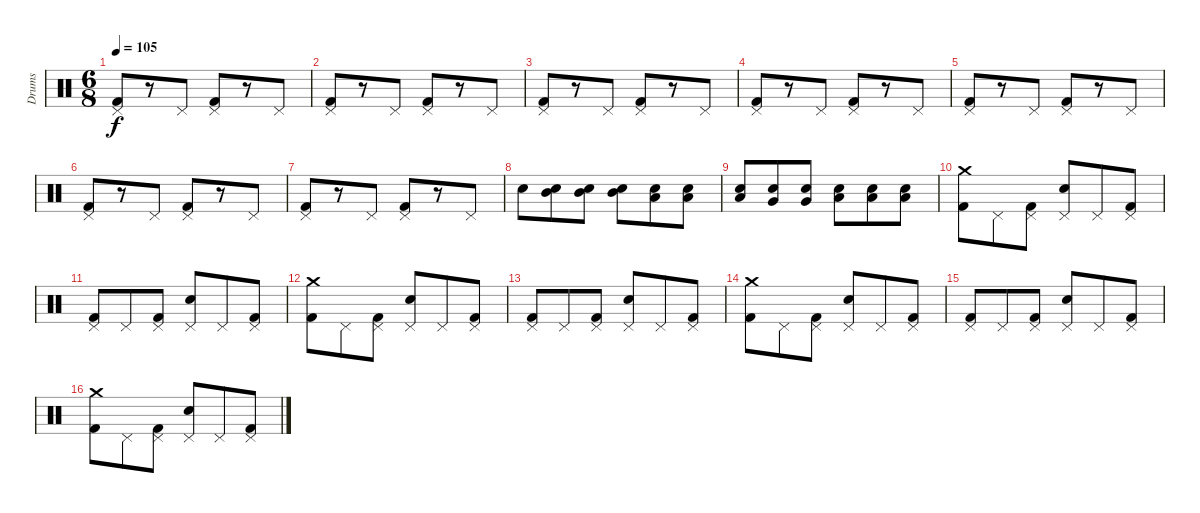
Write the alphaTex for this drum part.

\track ("Drums" "Drums") {instrument percussion}
\staff {score}
\articulation defaults
\ts (6 8)
\tempo 105
\clef neutral
\ks c
("Pedal Hi-Hat (hit)" "Kick (hit) 2").8{dy f} r.8 "Pedal Hi-Hat (hit)".8 ("Pedal Hi-Hat (hit)" "Kick (hit) 2").8 r.8 "Pedal Hi-Hat (hit)".8 |
("Pedal Hi-Hat (hit)" "Kick (hit) 2").8 r.8 "Pedal Hi-Hat (hit)".8 ("Pedal Hi-Hat (hit)" "Kick (hit) 2").8 r.8 "Pedal Hi-Hat (hit)".8 |
("Pedal Hi-Hat (hit)" "Kick (hit) 2").8 r.8 "Pedal Hi-Hat (hit)".8 ("Pedal Hi-Hat (hit)" "Kick (hit) 2").8 r.8 "Pedal Hi-Hat (hit)".8 |
("Pedal Hi-Hat (hit)" "Kick (hit) 2").8 r.8 "Pedal Hi-Hat (hit)".8 ("Pedal Hi-Hat (hit)" "Kick (hit) 2").8 r.8 "Pedal Hi-Hat (hit)".8 |
("Pedal Hi-Hat (hit)" "Kick (hit) 2").8 r.8 "Pedal Hi-Hat (hit)".8 ("Pedal Hi-Hat (hit)" "Kick (hit) 2").8 r.8 "Pedal Hi-Hat (hit)".8 |
("Pedal Hi-Hat (hit)" "Kick (hit) 2").8 r.8 "Pedal Hi-Hat (hit)".8 ("Pedal Hi-Hat (hit)" "Kick (hit) 2").8 r.8 "Pedal Hi-Hat (hit)".8 |
("Pedal Hi-Hat (hit)" "Kick (hit) 2").8 r.8 "Pedal Hi-Hat (hit)".8 ("Pedal Hi-Hat (hit)" "Kick (hit) 2").8 r.8 "Pedal Hi-Hat (hit)".8 |
"Snare (hit) 2".8 ("Mid Tom (hit)" "Snare (hit) 2").8{volume 8} ("Mid Tom (hit)" "Snare (hit) 2").8{volume 13} ("Mid Tom (hit)" "Snare (hit) 2").8 ("Low Tom (hit)" "Snare (hit) 2").8 ("Low Tom (hit)" "Snare (hit) 2").8 |
("Low Tom (hit)" "Snare (hit) 2").8 ("Very Low Tom (hit)" "Snare (hit) 2").8 ("Very Low Tom (hit)" "Snare (hit) 2").8 ("Low Floor Tom (hit)" "Snare (hit) 2").8 ("Low Floor Tom (hit)" "Snare (hit) 2").8 ("Low Floor Tom (hit)" "Snare (hit) 2").8 |
("Crash medium (hit)" "Kick (hit) 2").8 "Pedal Hi-Hat (hit)".8 ("Pedal Hi-Hat (hit)" "Kick (hit) 2").8 ("Pedal Hi-Hat (hit)" "Snare (hit) 2").8 "Pedal Hi-Hat (hit)".8 ("Pedal Hi-Hat (hit)" "Kick (hit) 2").8 |
("Pedal Hi-Hat (hit)" "Kick (hit) 2").8 "Pedal Hi-Hat (hit)".8 ("Pedal Hi-Hat (hit)" "Kick (hit) 2").8 ("Pedal Hi-Hat (hit)" "Snare (hit) 2").8 "Pedal Hi-Hat (hit)".8 ("Pedal Hi-Hat (hit)" "Kick (hit) 2").8 |
("Crash medium (hit)" "Kick (hit) 2").8 "Pedal Hi-Hat (hit)".8 ("Pedal Hi-Hat (hit)" "Kick (hit) 2").8 ("Pedal Hi-Hat (hit)" "Snare (hit) 2").8 "Pedal Hi-Hat (hit)".8 ("Pedal Hi-Hat (hit)" "Kick (hit) 2").8 |
("Pedal Hi-Hat (hit)" "Kick (hit) 2").8 "Pedal Hi-Hat (hit)".8 ("Pedal Hi-Hat (hit)" "Kick (hit) 2").8 ("Pedal Hi-Hat (hit)" "Snare (hit) 2").8 "Pedal Hi-Hat (hit)".8 ("Pedal Hi-Hat (hit)" "Kick (hit) 2").8 |
("Crash medium (hit)" "Kick (hit) 2").8 "Pedal Hi-Hat (hit)".8 ("Pedal Hi-Hat (hit)" "Kick (hit) 2").8 ("Pedal Hi-Hat (hit)" "Snare (hit) 2").8 "Pedal Hi-Hat (hit)".8 ("Pedal Hi-Hat (hit)" "Kick (hit) 2").8 |
("Pedal Hi-Hat (hit)" "Kick (hit) 2").8 "Pedal Hi-Hat (hit)".8 ("Pedal Hi-Hat (hit)" "Kick (hit) 2").8 ("Pedal Hi-Hat (hit)" "Snare (hit) 2").8 "Pedal Hi-Hat (hit)".8 ("Pedal Hi-Hat (hit)" "Kick (hit) 2").8 |
("Crash medium (hit)" "Kick (hit) 2").8 "Pedal Hi-Hat (hit)".8 ("Pedal Hi-Hat (hit)" "Kick (hit) 2").8 ("Pedal Hi-Hat (hit)" "Snare (hit) 2").8 "Pedal Hi-Hat (hit)".8 ("Pedal Hi-Hat (hit)" "Kick (hit) 2").8
